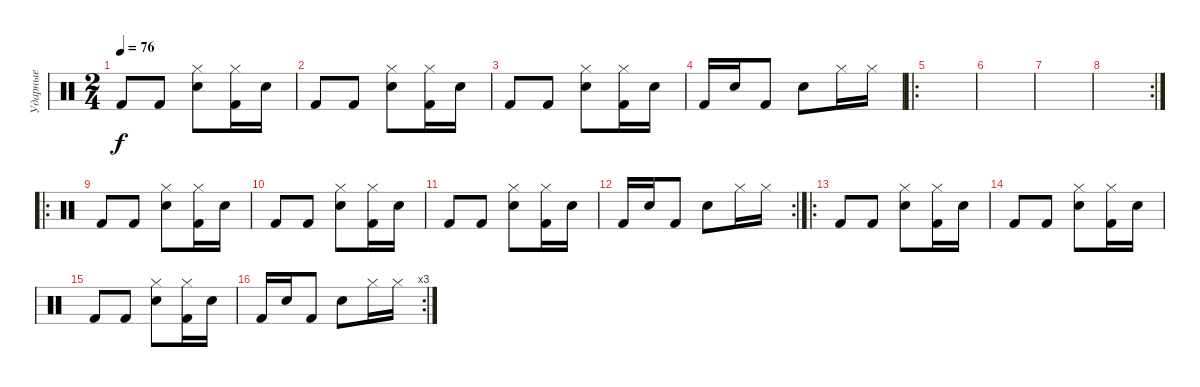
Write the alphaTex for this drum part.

\track ("Ударные" "Ударные") {instrument percussion}
\staff {score}
\articulation defaults
\ts (2 4)
\tempo 76
\clef neutral
\ks c "Kick (hit) 2".8{dy f} "Kick (hit) 2".8
("Electric Snare (hit)" "Hi-Hat (closed)").8 ("Kick (hit) 2" "Hi-Hat (closed)").16 "Electric Snare (hit)".16 |
"Kick (hit) 2".8 "Kick (hit) 2".8 ("Electric Snare (hit)" "Hi-Hat (closed)").8 ("Kick (hit) 2" "Hi-Hat (closed)").16 "Electric Snare (hit)".16 |
"Kick (hit) 2".8 "Kick (hit) 2".8 ("Electric Snare (hit)" "Hi-Hat (closed)").8 ("Kick (hit) 2" "Hi-Hat (closed)").16 "Electric Snare (hit)".16 |
"Kick (hit) 2".16 "Electric Snare (hit)".16 "Kick (hit) 2".8 "Electric Snare (hit)".8 "Hi-Hat (closed)".16 "Hi-Hat (closed)".16 |
\ro
|
|
|
\rc 2
|
\ro "Kick (hit) 2".8 "Kick (hit) 2".8
("Electric Snare (hit)" "Hi-Hat (closed)").8 ("Kick (hit) 2" "Hi-Hat (closed)").16 "Electric Snare (hit)".16 |
"Kick (hit) 2".8 "Kick (hit) 2".8 ("Electric Snare (hit)" "Hi-Hat (closed)").8 ("Kick (hit) 2" "Hi-Hat (closed)").16 "Electric Snare (hit)".16 |
"Kick (hit) 2".8 "Kick (hit) 2".8 ("Electric Snare (hit)" "Hi-Hat (closed)").8 ("Kick (hit) 2" "Hi-Hat (closed)").16 "Electric Snare (hit)".16 |
\rc 2 "Kick (hit) 2".16 "Electric Snare (hit)".16 "Kick (hit) 2".8 "Electric Snare (hit)".8 "Hi-Hat (closed)".16 "Hi-Hat (closed)".16
|
\ro "Kick (hit) 2".8 "Kick (hit) 2".8
("Electric Snare (hit)" "Hi-Hat (closed)").8 ("Kick (hit) 2" "Hi-Hat (closed)").16 "Electric Snare (hit)".16 |
"Kick (hit) 2".8 "Kick (hit) 2".8 ("Electric Snare (hit)" "Hi-Hat (closed)").8 ("Kick (hit) 2" "Hi-Hat (closed)").16 "Electric Snare (hit)".16 |
"Kick (hit) 2".8 "Kick (hit) 2".8 ("Electric Snare (hit)" "Hi-Hat (closed)").8 ("Kick (hit) 2" "Hi-Hat (closed)").16 "Electric Snare (hit)".16 |
\rc 3 "Kick (hit) 2".16 "Electric Snare (hit)".16 "Kick (hit) 2".8 "Electric Snare (hit)".8 "Hi-Hat (closed)".16 "Hi-Hat (closed)".16
